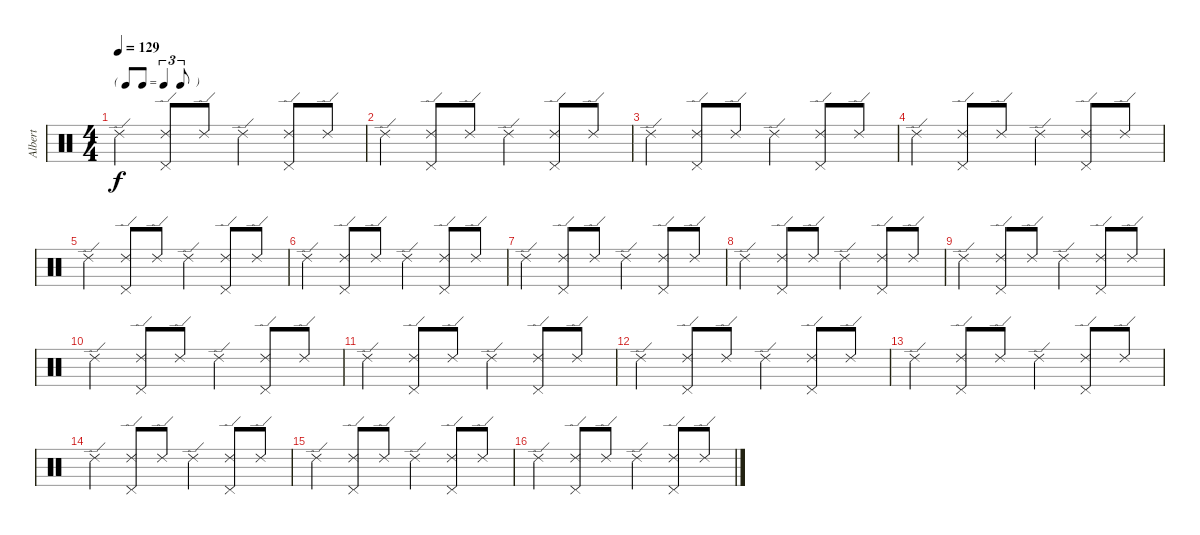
\track ("Albert" "Albert") {instrument percussion}
\staff {score}
\articulation defaults
\ts (4 4)
\tf triplet8th
\tempo 129
\clef neutral
\ks c "Ride (edge) 2".4{dy f}
("Ride (edge) 2" "Pedal Hi-Hat (hit)").8 "Ride (edge) 2".8 "Ride (edge) 2".4 ("Ride (edge) 2" "Pedal Hi-Hat (hit)").8 "Ride (edge) 2".8 |
"Ride (edge) 2".4 ("Ride (edge) 2" "Pedal Hi-Hat (hit)").8 "Ride (edge) 2".8 "Ride (edge) 2".4 ("Ride (edge) 2" "Pedal Hi-Hat (hit)").8 "Ride (edge) 2".8 |
"Ride (edge) 2".4 ("Ride (edge) 2" "Pedal Hi-Hat (hit)").8 "Ride (edge) 2".8 "Ride (edge) 2".4 ("Ride (edge) 2" "Pedal Hi-Hat (hit)").8 "Ride (edge) 2".8 |
"Ride (edge) 2".4 ("Ride (edge) 2" "Pedal Hi-Hat (hit)").8 "Ride (edge) 2".8 "Ride (edge) 2".4 ("Ride (edge) 2" "Pedal Hi-Hat (hit)").8 "Ride (edge) 2".8 |
"Ride (edge) 2".4 ("Ride (edge) 2" "Pedal Hi-Hat (hit)").8 "Ride (edge) 2".8 "Ride (edge) 2".4 ("Ride (edge) 2" "Pedal Hi-Hat (hit)").8 "Ride (edge) 2".8 |
"Ride (edge) 2".4 ("Ride (edge) 2" "Pedal Hi-Hat (hit)").8 "Ride (edge) 2".8 "Ride (edge) 2".4 ("Ride (edge) 2" "Pedal Hi-Hat (hit)").8 "Ride (edge) 2".8 |
"Ride (edge) 2".4 ("Ride (edge) 2" "Pedal Hi-Hat (hit)").8 "Ride (edge) 2".8 "Ride (edge) 2".4 ("Ride (edge) 2" "Pedal Hi-Hat (hit)").8 "Ride (edge) 2".8 |
"Ride (edge) 2".4 ("Ride (edge) 2" "Pedal Hi-Hat (hit)").8 "Ride (edge) 2".8 "Ride (edge) 2".4 ("Ride (edge) 2" "Pedal Hi-Hat (hit)").8 "Ride (edge) 2".8 |
"Ride (edge) 2".4 ("Ride (edge) 2" "Pedal Hi-Hat (hit)").8 "Ride (edge) 2".8 "Ride (edge) 2".4 ("Ride (edge) 2" "Pedal Hi-Hat (hit)").8 "Ride (edge) 2".8 |
"Ride (edge) 2".4 ("Ride (edge) 2" "Pedal Hi-Hat (hit)").8 "Ride (edge) 2".8 "Ride (edge) 2".4 ("Ride (edge) 2" "Pedal Hi-Hat (hit)").8 "Ride (edge) 2".8 |
"Ride (edge) 2".4 ("Ride (edge) 2" "Pedal Hi-Hat (hit)").8 "Ride (edge) 2".8 "Ride (edge) 2".4 ("Ride (edge) 2" "Pedal Hi-Hat (hit)").8 "Ride (edge) 2".8 |
"Ride (edge) 2".4 ("Ride (edge) 2" "Pedal Hi-Hat (hit)").8 "Ride (edge) 2".8 "Ride (edge) 2".4 ("Ride (edge) 2" "Pedal Hi-Hat (hit)").8 "Ride (edge) 2".8 |
"Ride (edge) 2".4 ("Ride (edge) 2" "Pedal Hi-Hat (hit)").8 "Ride (edge) 2".8 "Ride (edge) 2".4 ("Ride (edge) 2" "Pedal Hi-Hat (hit)").8 "Ride (edge) 2".8 |
"Ride (edge) 2".4 ("Ride (edge) 2" "Pedal Hi-Hat (hit)").8 "Ride (edge) 2".8 "Ride (edge) 2".4 ("Ride (edge) 2" "Pedal Hi-Hat (hit)").8 "Ride (edge) 2".8 |
"Ride (edge) 2".4 ("Ride (edge) 2" "Pedal Hi-Hat (hit)").8 "Ride (edge) 2".8 "Ride (edge) 2".4 ("Ride (edge) 2" "Pedal Hi-Hat (hit)").8 "Ride (edge) 2".8 |
"Ride (edge) 2".4 ("Ride (edge) 2" "Pedal Hi-Hat (hit)").8 "Ride (edge) 2".8 "Ride (edge) 2".4 ("Ride (edge) 2" "Pedal Hi-Hat (hit)").8 "Ride (edge) 2".8
